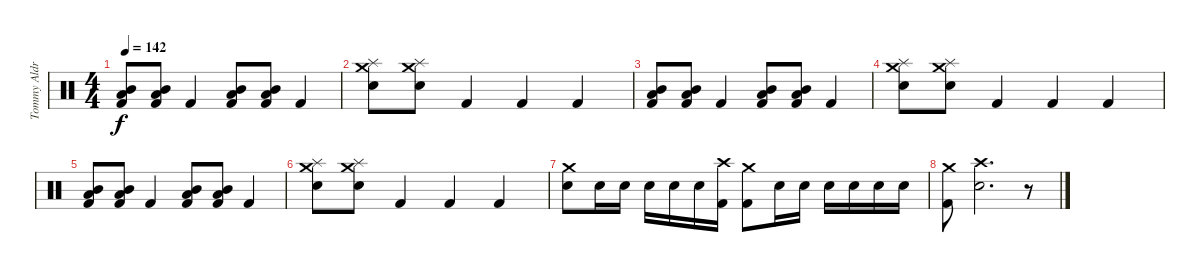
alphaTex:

\track ("Tommy Aldridge" "Tommy Aldr") {instrument percussion}
\staff {score}
\articulation defaults
\ts (4 4)
\tempo 142
\clef neutral
\ks c
("Mid Tom (hit)" "Low Tom (hit)" "Kick (hit) 2").8{dy f} ("Mid Tom (hit)" "Low Tom (hit)" "Kick (hit) 2").8 "Kick (hit) 2".4 ("Mid Tom (hit)" "Low Tom (hit)" "Kick (hit) 2").8 ("Mid Tom (hit)" "Low Tom (hit)" "Kick (hit) 2").8 "Kick (hit) 2".4 |
("Crash medium (hit)" "Splash (hit)" "Snare (hit) 2").8 ("Crash medium (hit)" "Splash (hit)" "Snare (hit) 2").8 "Kick (hit) 2".4 "Kick (hit) 2".4 "Kick (hit) 2".4 |
("Mid Tom (hit)" "Low Tom (hit)" "Kick (hit) 2").8 ("Mid Tom (hit)" "Low Tom (hit)" "Kick (hit) 2").8 "Kick (hit) 2".4 ("Mid Tom (hit)" "Low Tom (hit)" "Kick (hit) 2").8 ("Mid Tom (hit)" "Low Tom (hit)" "Kick (hit) 2").8 "Kick (hit) 2".4 |
("Crash medium (hit)" "Splash (hit)" "Snare (hit) 2").8 ("Crash medium (hit)" "Splash (hit)" "Snare (hit) 2").8 "Kick (hit) 2".4 "Kick (hit) 2".4 "Kick (hit) 2".4 |
("Mid Tom (hit)" "Low Tom (hit)" "Kick (hit) 2").8 ("Mid Tom (hit)" "Low Tom (hit)" "Kick (hit) 2").8 "Kick (hit) 2".4 ("Mid Tom (hit)" "Low Tom (hit)" "Kick (hit) 2").8 ("Mid Tom (hit)" "Low Tom (hit)" "Kick (hit) 2").8 "Kick (hit) 2".4 |
("Crash medium (hit)" "Splash (hit)" "Snare (hit) 2").8 ("Crash medium (hit)" "Splash (hit)" "Snare (hit) 2").8 "Kick (hit) 2".4 "Kick (hit) 2".4 "Kick (hit) 2".4 |
("Crash medium (hit)" "Snare (hit) 2").8 "Snare (hit) 2".16 "Snare (hit) 2".16 "Snare (hit) 2".16 "Snare (hit) 2".16 "Snare (hit) 2".16 ("Crash high (hit)" "Kick (hit) 2").16 ("Crash medium (hit)" "Kick (hit) 2").8 "Snare (hit) 2".16 "Snare (hit) 2".16 "Snare (hit) 2".16 "Snare (hit) 2".16 "Snare (hit) 2".16 "Snare (hit) 2".16 |
("Crash medium (hit)" "Kick (hit) 2").8 ("Crash high (hit)" "Snare (hit) 2").2{d} r.8
